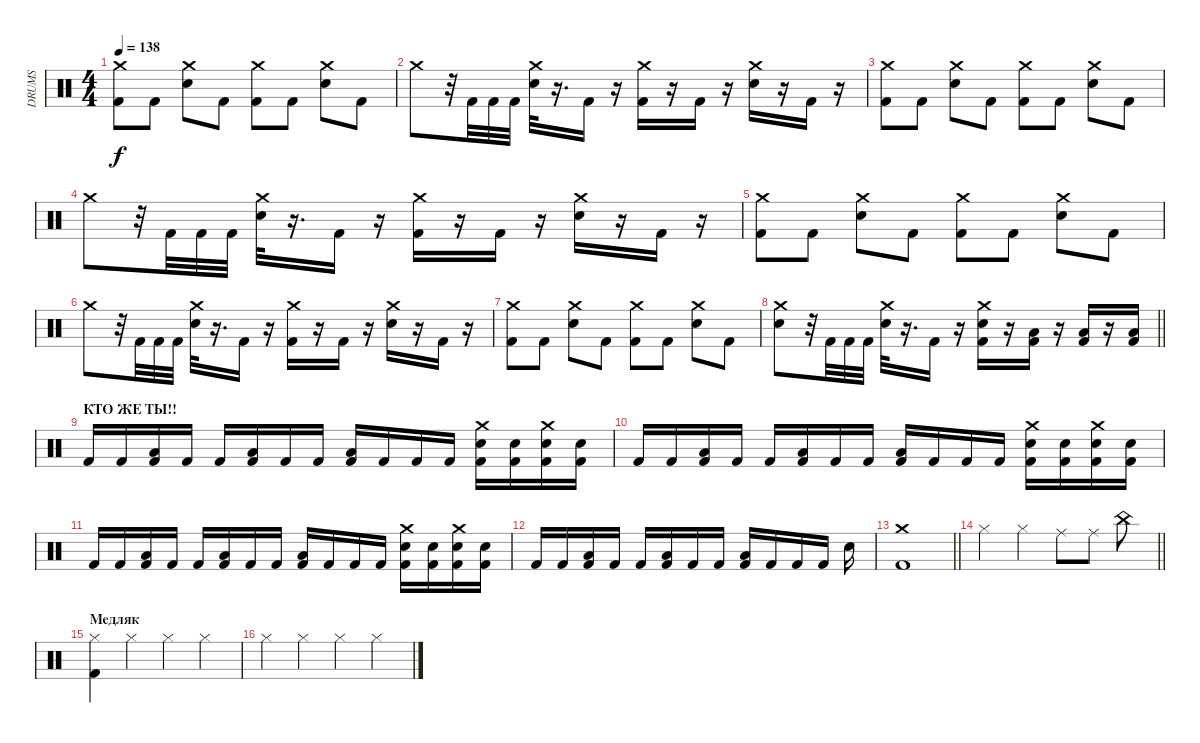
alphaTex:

\track ("DRUMS" "DRUMS") {instrument percussion}
\staff {score}
\articulation defaults
\ts (4 4)
\tempo 138
\clef neutral
\ks c
("Crash medium (hit)" "Kick (hit) 2").8{dy f} "Kick (hit) 2".8 ("Crash medium (hit)" "Electric Snare (hit)").8 "Kick (hit) 2".8 ("Crash medium (hit)" "Kick (hit) 2").8 "Kick (hit) 2".8 ("Crash medium (hit)" "Electric Snare (hit)").8 "Kick (hit) 2".8 |
"Crash medium (hit)".8 r.32 "Kick (hit) 2".32 "Kick (hit) 2".32 "Kick (hit) 2".32 ("Crash medium (hit)" "Electric Snare (hit)").32 r.16{d} "Kick (hit) 2".16 r.16 ("Crash medium (hit)" "Kick (hit) 2").16 r.16 "Kick (hit) 2".16 r.16 ("Crash medium (hit)" "Electric Snare (hit)").16 r.16 "Kick (hit) 2".16 r.16 |
("Crash medium (hit)" "Kick (hit) 2").8 "Kick (hit) 2".8 ("Crash medium (hit)" "Electric Snare (hit)").8 "Kick (hit) 2".8 ("Crash medium (hit)" "Kick (hit) 2").8 "Kick (hit) 2".8 ("Crash medium (hit)" "Electric Snare (hit)").8 "Kick (hit) 2".8 |
"Crash medium (hit)".8 r.32 "Kick (hit) 2".32 "Kick (hit) 2".32 "Kick (hit) 2".32 ("Crash medium (hit)" "Electric Snare (hit)").32 r.16{d} "Kick (hit) 2".16 r.16 ("Crash medium (hit)" "Kick (hit) 2").16 r.16 "Kick (hit) 2".16 r.16 ("Crash medium (hit)" "Electric Snare (hit)").16 r.16 "Kick (hit) 2".16 r.16 |
("Crash medium (hit)" "Kick (hit) 2").8 "Kick (hit) 2".8 ("Crash medium (hit)" "Electric Snare (hit)").8 "Kick (hit) 2".8 ("Crash medium (hit)" "Kick (hit) 2").8 "Kick (hit) 2".8 ("Crash medium (hit)" "Electric Snare (hit)").8 "Kick (hit) 2".8 |
"Crash medium (hit)".8 r.32 "Kick (hit) 2".32 "Kick (hit) 2".32 "Kick (hit) 2".32 ("Crash medium (hit)" "Electric Snare (hit)").32 r.16{d} "Kick (hit) 2".16 r.16 ("Crash medium (hit)" "Kick (hit) 2").16 r.16 "Kick (hit) 2".16 r.16 ("Crash medium (hit)" "Electric Snare (hit)").16 r.16 "Kick (hit) 2".16 r.16 |
("Crash medium (hit)" "Kick (hit) 2").8 "Kick (hit) 2".8 ("Crash medium (hit)" "Electric Snare (hit)").8 "Kick (hit) 2".8 ("Crash medium (hit)" "Kick (hit) 2").8 "Kick (hit) 2".8 ("Crash medium (hit)" "Electric Snare (hit)").8 "Kick (hit) 2".8 |
\barLineRight lightlight
("Crash medium (hit)" "Electric Snare (hit)").8 r.32 "Kick (hit) 2".32 "Kick (hit) 2".32 "Kick (hit) 2".32 ("Crash medium (hit)" "Electric Snare (hit)").32 r.16{d} "Kick (hit) 2".16 r.16 ("Crash medium (hit)" "Electric Snare (hit)" "Kick (hit) 2").16 r.16 ("Kick (hit) 2" "Low Floor Tom (hit)").16 r.16 ("Kick (hit) 2" "Low Floor Tom (hit)").16 r.16 ("Kick (hit) 2" "Low Floor Tom (hit)").16 |
\section ("" "КТО ЖЕ ТЫ!!")
"Kick (hit) 2".16 "Kick (hit) 2".16 ("Low Floor Tom (hit)" "Kick (hit) 2").16 "Kick (hit) 2".16 "Kick (hit) 2".16 ("Low Floor Tom (hit)" "Kick (hit) 2").16 "Kick (hit) 2".16 "Kick (hit) 2".16 ("Low Floor Tom (hit)" "Kick (hit) 2").16 "Kick (hit) 2".16 "Kick (hit) 2".16 "Kick (hit) 2".16 ("Crash medium (hit)" "Electric Snare (hit)" "Kick (hit) 2").16 ("Electric Snare (hit)" "Kick (hit) 2").16 ("Crash medium (hit)" "Electric Snare (hit)" "Kick (hit) 2").16 ("Electric Snare (hit)" "Kick (hit) 2").16 |
"Kick (hit) 2".16 "Kick (hit) 2".16 ("Low Floor Tom (hit)" "Kick (hit) 2").16 "Kick (hit) 2".16 "Kick (hit) 2".16 ("Low Floor Tom (hit)" "Kick (hit) 2").16 "Kick (hit) 2".16 "Kick (hit) 2".16 ("Low Floor Tom (hit)" "Kick (hit) 2").16 "Kick (hit) 2".16 "Kick (hit) 2".16 "Kick (hit) 2".16 ("Crash medium (hit)" "Electric Snare (hit)" "Kick (hit) 2").16 ("Electric Snare (hit)" "Kick (hit) 2").16 ("Crash medium (hit)" "Electric Snare (hit)" "Kick (hit) 2").16 ("Electric Snare (hit)" "Kick (hit) 2").16 |
"Kick (hit) 2".16 "Kick (hit) 2".16 ("Low Floor Tom (hit)" "Kick (hit) 2").16 "Kick (hit) 2".16 "Kick (hit) 2".16 ("Low Floor Tom (hit)" "Kick (hit) 2").16 "Kick (hit) 2".16 "Kick (hit) 2".16 ("Low Floor Tom (hit)" "Kick (hit) 2").16 "Kick (hit) 2".16 "Kick (hit) 2".16 "Kick (hit) 2".16 ("Crash medium (hit)" "Electric Snare (hit)" "Kick (hit) 2").16 ("Electric Snare (hit)" "Kick (hit) 2").16 ("Crash medium (hit)" "Electric Snare (hit)" "Kick (hit) 2").16 ("Electric Snare (hit)" "Kick (hit) 2").16 |
"Kick (hit) 2".16 "Kick (hit) 2".16 ("Low Floor Tom (hit)" "Kick (hit) 2").16 "Kick (hit) 2".16 "Kick (hit) 2".16 ("Low Floor Tom (hit)" "Kick (hit) 2").16 "Kick (hit) 2".16 "Kick (hit) 2".16 ("Low Floor Tom (hit)" "Kick (hit) 2").16 "Kick (hit) 2".16 "Kick (hit) 2".16 "Kick (hit) 2".16 "Electric Snare (hit)".16 |
\barLineRight lightlight
("Crash medium (hit)" "Kick (hit) 2").1 |
\barLineRight lightlight "Hi-Hat (closed)".4 "Hi-Hat (closed)".4 "Ride (middle)".8 "Ride (middle)".8 "China (hit)".8
|
\section ("" "Медляк")
("Hi-Hat (closed)" "Kick (hit) 2").4 "Hi-Hat (closed)".4 "Hi-Hat (closed)".4 "Hi-Hat (closed)".4 |
"Hi-Hat (closed)".4 "Hi-Hat (closed)".4 "Hi-Hat (closed)".4 "Hi-Hat (closed)".4
